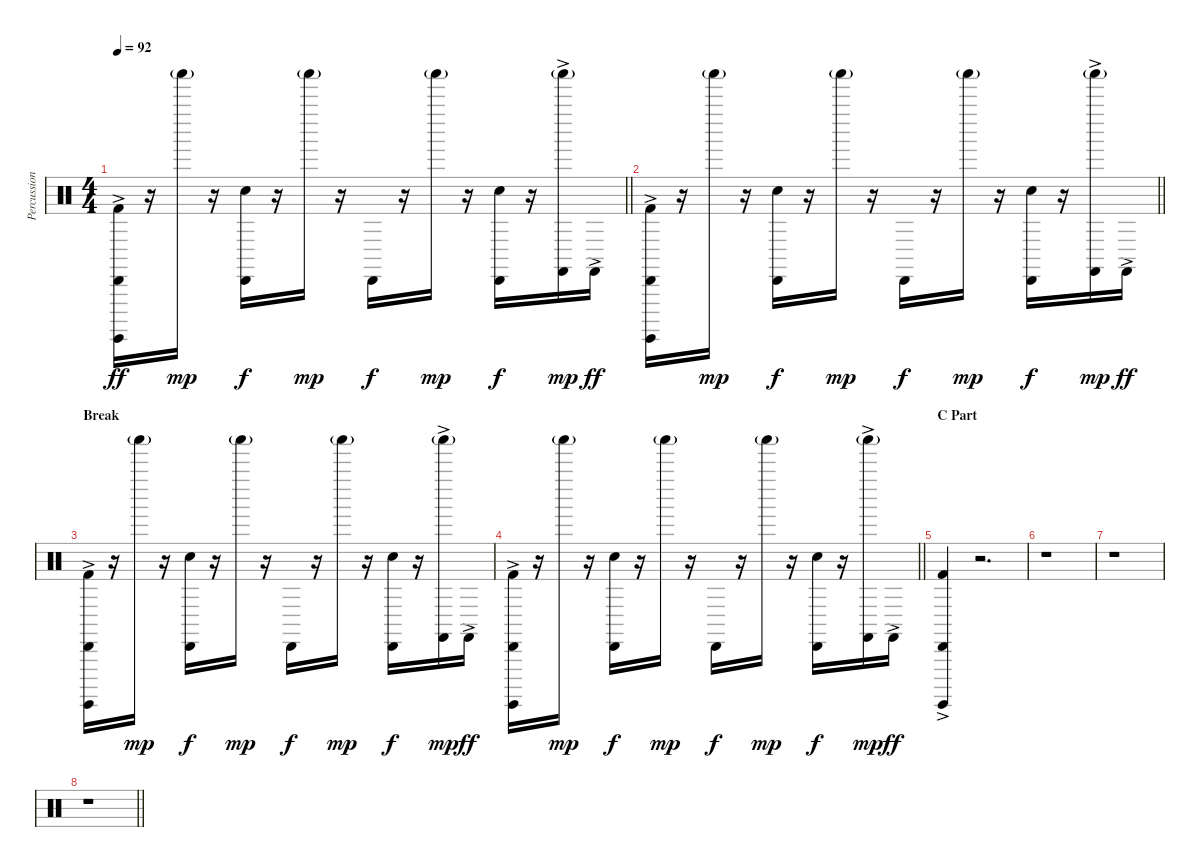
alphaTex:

\track ("Percussion" "Percussion") {instrument percussion}
\staff {score}
\articulation defaults
\ts (4 4)
\tempo 92
\clef neutral
\barLineRight lightlight
\ks c
("Kick (hit) 2" "Surdo (hit)"{ac} "Cabasa (hit)").16{dy ff} r.16 "Shaker (hit)"{g}.16{dy mp} r.16 ("Snare (hit) 2" "Cabasa (hit)").16{dy f} r.16 "Shaker (hit)"{g}.16{dy mp} r.16 "Cabasa (hit)".16{dy f} r.16 "Shaker (hit)"{g}.16{dy mp} r.16 ("Snare (hit) 2" "Cabasa (hit)").16{dy f} r.16 ("Castanets (hit)"{ac} "Shaker (hit)"{g}).16{dy mp} "Castanets (hit)"{ac}.16{dy ff} |
\barLineRight lightlight
("Kick (hit) 2" "Surdo (hit)"{ac} "Cabasa (hit)").16 r.16 "Shaker (hit)"{g}.16{dy mp} r.16 ("Snare (hit) 2" "Cabasa (hit)").16{dy f} r.16 "Shaker (hit)"{g}.16{dy mp} r.16 "Cabasa (hit)".16{dy f} r.16 "Shaker (hit)"{g}.16{dy mp} r.16 ("Snare (hit) 2" "Cabasa (hit)").16{dy f} r.16 ("Castanets (hit)"{ac} "Shaker (hit)"{g}).16{dy mp} "Castanets (hit)"{ac}.16{dy ff} |
\section ("" "Break")
("Kick (hit) 2" "Surdo (hit)"{ac} "Cabasa (hit)").16 r.16 "Shaker (hit)"{g}.16{dy mp} r.16 ("Snare (hit) 2" "Cabasa (hit)").16{dy f} r.16 "Shaker (hit)"{g}.16{dy mp} r.16 "Cabasa (hit)".16{dy f} r.16 "Shaker (hit)"{g}.16{dy mp} r.16 ("Snare (hit) 2" "Cabasa (hit)").16{dy f} r.16 ("Castanets (hit)"{ac} "Shaker (hit)"{g}).16{dy mp} "Castanets (hit)"{ac}.16{dy ff} |
\barLineRight lightlight
("Kick (hit) 2" "Surdo (hit)"{ac} "Cabasa (hit)").16 r.16 "Shaker (hit)"{g}.16{dy mp} r.16 ("Snare (hit) 2" "Cabasa (hit)").16{dy f} r.16 "Shaker (hit)"{g}.16{dy mp} r.16 "Cabasa (hit)".16{dy f} r.16 "Shaker (hit)"{g}.16{dy mp} r.16 ("Snare (hit) 2" "Cabasa (hit)").16{dy f} r.16 ("Castanets (hit)"{ac} "Shaker (hit)"{g}).16{dy mp} "Castanets (hit)"{ac}.16{dy ff} |
\section ("" "C Part")
("Kick (hit) 2" "Surdo (hit)"{ac} "Cabasa (hit)").4 r.2{d} |
r.1 |
r.1 |
\barLineRight lightlight
r.1
